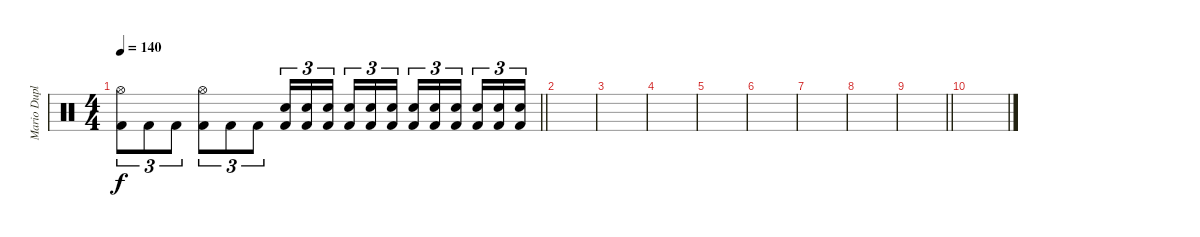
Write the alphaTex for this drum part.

\track ("Mario Duplantier" "Mario Dupl") {instrument percussion}
\staff {score}
\articulation defaults
\ts (4 4)
\tempo 140
\clef neutral
\barLineRight lightlight
\ks c
("Hi-Hat (open)" "Kick (hit) 2").8{tu (3 2) dy f} "Kick (hit) 2".8{tu (3 2)} "Kick (hit) 2".8{tu (3 2)} ("Hi-Hat (open)" "Kick (hit) 2").8{tu (3 2)} "Kick (hit) 2".8{tu (3 2)} "Kick (hit) 2".8{tu (3 2)} ("Electric Snare (hit)" "Kick (hit) 2").16{tu (3 2)} ("Electric Snare (hit)" "Kick (hit) 2").16{tu (3 2)} ("Electric Snare (hit)" "Kick (hit) 2").16{tu (3 2) beam splitsecondary} ("Electric Snare (hit)" "Kick (hit) 2").16{tu (3 2)} ("Electric Snare (hit)" "Kick (hit) 2").16{tu (3 2)} ("Electric Snare (hit)" "Kick (hit) 2").16{tu (3 2)} ("Electric Snare (hit)" "Kick (hit) 2").16{tu (3 2)} ("Electric Snare (hit)" "Kick (hit) 2").16{tu (3 2)} ("Electric Snare (hit)" "Kick (hit) 2").16{tu (3 2) beam splitsecondary} ("Electric Snare (hit)" "Kick (hit) 2").16{tu (3 2)} ("Electric Snare (hit)" "Kick (hit) 2").16{tu (3 2)} ("Electric Snare (hit)" "Kick (hit) 2").16{tu (3 2)} |
\section ("" "")
|
|
|
|
|
|
|
\barLineRight lightlight
|
\section ("" "")
